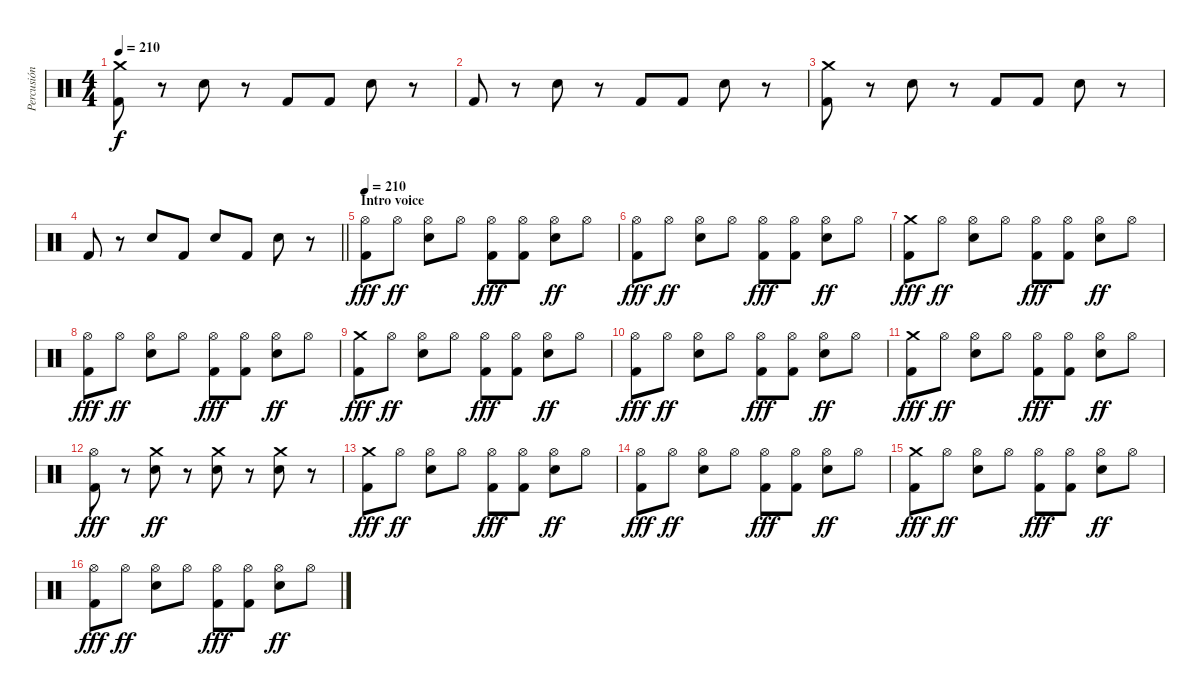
\track ("Percusión" "Percusión") {instrument percussion}
\staff {score}
\articulation defaults
\ts (4 4)
\tempo 210
\clef neutral
\ks c
("Crash medium (hit)" "Kick (hit) 2").8{dy f} r.8 "Electric Snare (hit)".8 r.8 "Kick (hit) 2".8 "Kick (hit) 2".8 "Electric Snare (hit)".8 r.8 |
"Kick (hit) 2".8 r.8 "Electric Snare (hit)".8 r.8 "Kick (hit) 2".8 "Kick (hit) 2".8 "Electric Snare (hit)".8 r.8 |
("Crash medium (hit)" "Kick (hit) 2").8 r.8 "Electric Snare (hit)".8 r.8 "Kick (hit) 2".8 "Kick (hit) 2".8 "Electric Snare (hit)".8 r.8 |
\barLineRight lightlight "Kick (hit) 2".8
r.8 "Electric Snare (hit)".8 "Kick (hit) 2".8 "Electric Snare (hit)".8 "Kick (hit) 2".8 "Electric Snare (hit)".8 r.8 |
\section ("" "Intro voice")
\tempo 210
("Hi-Hat (open)" "Kick (hit) 2").8{dy fff} "Hi-Hat (open)".8{dy ff} ("Hi-Hat (open)" "Electric Snare (hit)").8 "Hi-Hat (open)".8 ("Hi-Hat (open)" "Kick (hit) 2").8{dy fff} ("Hi-Hat (open)" "Kick (hit) 2").8 ("Hi-Hat (open)" "Electric Snare (hit)").8{dy ff} "Hi-Hat (open)".8 |
("Hi-Hat (open)" "Kick (hit) 2").8{dy fff} "Hi-Hat (open)".8{dy ff} ("Hi-Hat (open)" "Electric Snare (hit)").8 "Hi-Hat (open)".8 ("Hi-Hat (open)" "Kick (hit) 2").8{dy fff} ("Hi-Hat (open)" "Kick (hit) 2").8 ("Hi-Hat (open)" "Electric Snare (hit)").8{dy ff} "Hi-Hat (open)".8 |
("Crash medium (hit)" "Kick (hit) 2").8{dy fff} "Hi-Hat (open)".8{dy ff} ("Hi-Hat (open)" "Electric Snare (hit)").8 "Hi-Hat (open)".8 ("Hi-Hat (open)" "Kick (hit) 2").8{dy fff} ("Hi-Hat (open)" "Kick (hit) 2").8 ("Hi-Hat (open)" "Electric Snare (hit)").8{dy ff} "Hi-Hat (open)".8 |
("Hi-Hat (open)" "Kick (hit) 2").8{dy fff} "Hi-Hat (open)".8{dy ff} ("Hi-Hat (open)" "Electric Snare (hit)").8 "Hi-Hat (open)".8 ("Hi-Hat (open)" "Kick (hit) 2").8{dy fff} ("Hi-Hat (open)" "Kick (hit) 2").8 ("Hi-Hat (open)" "Electric Snare (hit)").8{dy ff} "Hi-Hat (open)".8 |
("Crash medium (hit)" "Kick (hit) 2").8{dy fff} "Hi-Hat (open)".8{dy ff} ("Hi-Hat (open)" "Electric Snare (hit)").8 "Hi-Hat (open)".8 ("Hi-Hat (open)" "Kick (hit) 2").8{dy fff} ("Hi-Hat (open)" "Kick (hit) 2").8 ("Hi-Hat (open)" "Electric Snare (hit)").8{dy ff} "Hi-Hat (open)".8 |
("Hi-Hat (open)" "Kick (hit) 2").8{dy fff} "Hi-Hat (open)".8{dy ff} ("Hi-Hat (open)" "Electric Snare (hit)").8 "Hi-Hat (open)".8 ("Hi-Hat (open)" "Kick (hit) 2").8{dy fff} ("Hi-Hat (open)" "Kick (hit) 2").8 ("Hi-Hat (open)" "Electric Snare (hit)").8{dy ff} "Hi-Hat (open)".8 |
("Crash medium (hit)" "Kick (hit) 2").8{dy fff} "Hi-Hat (open)".8{dy ff} ("Hi-Hat (open)" "Electric Snare (hit)").8 "Hi-Hat (open)".8 ("Hi-Hat (open)" "Kick (hit) 2").8{dy fff} ("Hi-Hat (open)" "Kick (hit) 2").8 ("Hi-Hat (open)" "Electric Snare (hit)").8{dy ff} "Hi-Hat (open)".8 |
("Hi-Hat (open)" "Kick (hit) 2").8{dy fff} r.8 ("Crash medium (hit)" "Electric Snare (hit)").8{dy ff} r.8 ("Crash medium (hit)" "Electric Snare (hit)").8 r.8 ("Crash medium (hit)" "Electric Snare (hit)").8 r.8 |
("Crash medium (hit)" "Kick (hit) 2").8{dy fff} "Hi-Hat (open)".8{dy ff} ("Hi-Hat (open)" "Electric Snare (hit)").8 "Hi-Hat (open)".8 ("Hi-Hat (open)" "Kick (hit) 2").8{dy fff} ("Hi-Hat (open)" "Kick (hit) 2").8 ("Hi-Hat (open)" "Electric Snare (hit)").8{dy ff} "Hi-Hat (open)".8 |
("Hi-Hat (open)" "Kick (hit) 2").8{dy fff} "Hi-Hat (open)".8{dy ff} ("Hi-Hat (open)" "Electric Snare (hit)").8 "Hi-Hat (open)".8 ("Hi-Hat (open)" "Kick (hit) 2").8{dy fff} ("Hi-Hat (open)" "Kick (hit) 2").8 ("Hi-Hat (open)" "Electric Snare (hit)").8{dy ff} "Hi-Hat (open)".8 |
("Crash medium (hit)" "Kick (hit) 2").8{dy fff} "Hi-Hat (open)".8{dy ff} ("Hi-Hat (open)" "Electric Snare (hit)").8 "Hi-Hat (open)".8 ("Hi-Hat (open)" "Kick (hit) 2").8{dy fff} ("Hi-Hat (open)" "Kick (hit) 2").8 ("Hi-Hat (open)" "Electric Snare (hit)").8{dy ff} "Hi-Hat (open)".8 |
("Hi-Hat (open)" "Kick (hit) 2").8{dy fff} "Hi-Hat (open)".8{dy ff} ("Hi-Hat (open)" "Electric Snare (hit)").8 "Hi-Hat (open)".8 ("Hi-Hat (open)" "Kick (hit) 2").8{dy fff} ("Hi-Hat (open)" "Kick (hit) 2").8 ("Hi-Hat (open)" "Electric Snare (hit)").8{dy ff} "Hi-Hat (open)".8
